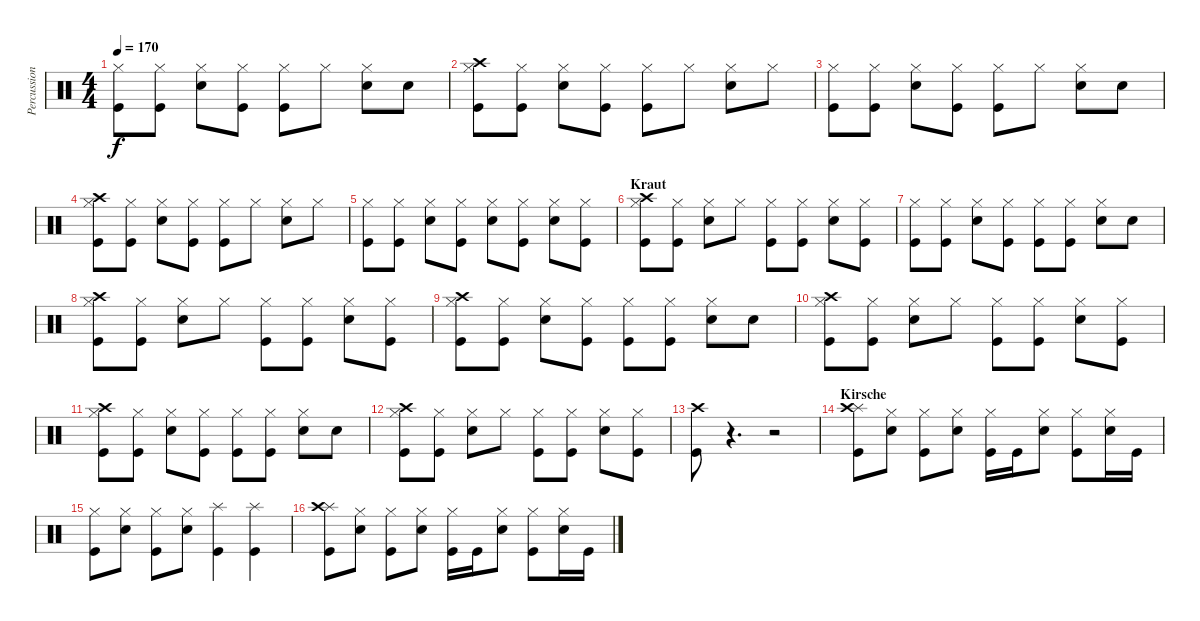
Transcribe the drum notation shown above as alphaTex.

\track ("Percussion" "Percussion") {instrument percussion}
\staff {score}
\articulation defaults
\ts (4 4)
\tempo 170
\clef neutral
\ks c
("Hi-Hat (closed)" "Kick (hit)").8{dy f} ("Hi-Hat (closed)" "Kick (hit)").8 ("Hi-Hat (closed)" "Electric Snare (hit)").8 ("Hi-Hat (closed)" "Kick (hit)").8 ("Hi-Hat (closed)" "Kick (hit)").8 "Hi-Hat (closed)".8 ("Hi-Hat (closed)" "Electric Snare (hit)").8 "Electric Snare (hit)".8 |
("Crash high (hit)" "Hi-Hat (closed)" "Kick (hit)").8 ("Hi-Hat (closed)" "Kick (hit)").8 ("Hi-Hat (closed)" "Electric Snare (hit)").8 ("Hi-Hat (closed)" "Kick (hit)").8 ("Hi-Hat (closed)" "Kick (hit)").8 "Hi-Hat (closed)".8 ("Hi-Hat (closed)" "Electric Snare (hit)").8 "Hi-Hat (closed)".8 |
("Hi-Hat (closed)" "Kick (hit)").8 ("Hi-Hat (closed)" "Kick (hit)").8 ("Hi-Hat (closed)" "Electric Snare (hit)").8 ("Hi-Hat (closed)" "Kick (hit)").8 ("Hi-Hat (closed)" "Kick (hit)").8 "Hi-Hat (closed)".8 ("Hi-Hat (closed)" "Electric Snare (hit)").8 "Electric Snare (hit)".8 |
("Crash high (hit)" "Hi-Hat (closed)" "Kick (hit)").8 ("Hi-Hat (closed)" "Kick (hit)").8 ("Hi-Hat (closed)" "Electric Snare (hit)").8 ("Hi-Hat (closed)" "Kick (hit)").8 ("Hi-Hat (closed)" "Kick (hit)").8 "Hi-Hat (closed)".8 ("Hi-Hat (closed)" "Electric Snare (hit)").8 "Hi-Hat (closed)".8 |
("Hi-Hat (closed)" "Kick (hit)").8 ("Hi-Hat (closed)" "Kick (hit)").8 ("Hi-Hat (closed)" "Electric Snare (hit)").8 ("Hi-Hat (closed)" "Kick (hit)").8 ("Hi-Hat (closed)" "Electric Snare (hit)").8 ("Hi-Hat (closed)" "Kick (hit)").8 ("Hi-Hat (closed)" "Electric Snare (hit)").8 ("Hi-Hat (closed)" "Kick (hit)").8 |
\section ("" "Kraut")
("Crash high (hit)" "Hi-Hat (closed)" "Kick (hit)").8 ("Hi-Hat (closed)" "Kick (hit)").8 ("Hi-Hat (closed)" "Electric Snare (hit)").8 "Hi-Hat (closed)".8 ("Hi-Hat (closed)" "Kick (hit)").8 ("Hi-Hat (closed)" "Kick (hit)").8 ("Hi-Hat (closed)" "Electric Snare (hit)").8 ("Hi-Hat (closed)" "Kick (hit)").8 |
("Hi-Hat (closed)" "Kick (hit)").8 ("Hi-Hat (closed)" "Kick (hit)").8 ("Hi-Hat (closed)" "Electric Snare (hit)").8 ("Hi-Hat (closed)" "Kick (hit)").8 ("Hi-Hat (closed)" "Kick (hit)").8 ("Hi-Hat (closed)" "Kick (hit)").8 ("Hi-Hat (closed)" "Electric Snare (hit)").8 "Electric Snare (hit)".8 |
("Crash high (hit)" "Hi-Hat (closed)" "Kick (hit)").8 ("Hi-Hat (closed)" "Kick (hit)").8 ("Hi-Hat (closed)" "Electric Snare (hit)").8 "Hi-Hat (closed)".8 ("Hi-Hat (closed)" "Kick (hit)").8 ("Hi-Hat (closed)" "Kick (hit)").8 ("Hi-Hat (closed)" "Electric Snare (hit)").8 ("Hi-Hat (closed)" "Kick (hit)").8 |
("Crash high (hit)" "Hi-Hat (closed)" "Kick (hit)").8 ("Hi-Hat (closed)" "Kick (hit)").8 ("Hi-Hat (closed)" "Electric Snare (hit)").8 ("Hi-Hat (closed)" "Kick (hit)").8 ("Hi-Hat (closed)" "Kick (hit)").8 ("Hi-Hat (closed)" "Kick (hit)").8 ("Hi-Hat (closed)" "Electric Snare (hit)").8 "Electric Snare (hit)".8 |
("Crash high (hit)" "Hi-Hat (closed)" "Kick (hit)").8 ("Hi-Hat (closed)" "Kick (hit)").8 ("Hi-Hat (closed)" "Electric Snare (hit)").8 "Hi-Hat (closed)".8 ("Hi-Hat (closed)" "Kick (hit)").8 ("Hi-Hat (closed)" "Kick (hit)").8 ("Hi-Hat (closed)" "Electric Snare (hit)").8 ("Hi-Hat (closed)" "Kick (hit)").8 |
("Crash high (hit)" "Hi-Hat (closed)" "Kick (hit)").8 ("Hi-Hat (closed)" "Kick (hit)").8 ("Hi-Hat (closed)" "Electric Snare (hit)").8 ("Hi-Hat (closed)" "Kick (hit)").8 ("Hi-Hat (closed)" "Kick (hit)").8 ("Hi-Hat (closed)" "Kick (hit)").8 ("Hi-Hat (closed)" "Electric Snare (hit)").8 "Electric Snare (hit)".8 |
("Crash high (hit)" "Hi-Hat (closed)" "Kick (hit)").8 ("Hi-Hat (closed)" "Kick (hit)").8 ("Hi-Hat (closed)" "Electric Snare (hit)").8 "Hi-Hat (closed)".8 ("Hi-Hat (closed)" "Kick (hit)").8 ("Hi-Hat (closed)" "Kick (hit)").8 ("Hi-Hat (closed)" "Electric Snare (hit)").8 ("Hi-Hat (closed)" "Kick (hit)").8 |
("Crash high (hit)" "Kick (hit)").8 r.4{d} r.2 |
\section ("" "Kirsche")
("Splash (hit)" "Crash high (hit)" "Kick (hit)").8 ("Hi-Hat (closed)" "Electric Snare (hit)").8 ("Hi-Hat (closed)" "Kick (hit)").8 ("Hi-Hat (closed)" "Electric Snare (hit)").8 ("Hi-Hat (closed)" "Kick (hit)").16 "Kick (hit)".16 ("Hi-Hat (closed)" "Electric Snare (hit)").8 ("Hi-Hat (closed)" "Kick (hit)").8 ("Hi-Hat (closed)" "Electric Snare (hit)").16 "Kick (hit)".16 |
("Hi-Hat (closed)" "Kick (hit)").8 ("Hi-Hat (closed)" "Electric Snare (hit)").8 ("Hi-Hat (closed)" "Kick (hit)").8 ("Hi-Hat (closed)" "Electric Snare (hit)").8 ("Splash (hit)" "Kick (hit)").4 ("Splash (hit)" "Kick (hit)").4 |
("Splash (hit)" "Crash high (hit)" "Kick (hit)").8 ("Hi-Hat (closed)" "Electric Snare (hit)").8 ("Hi-Hat (closed)" "Kick (hit)").8 ("Hi-Hat (closed)" "Electric Snare (hit)").8 ("Hi-Hat (closed)" "Kick (hit)").16 "Kick (hit)".16 ("Hi-Hat (closed)" "Electric Snare (hit)").8 ("Hi-Hat (closed)" "Kick (hit)").8 ("Hi-Hat (closed)" "Electric Snare (hit)").16 "Kick (hit)".16
